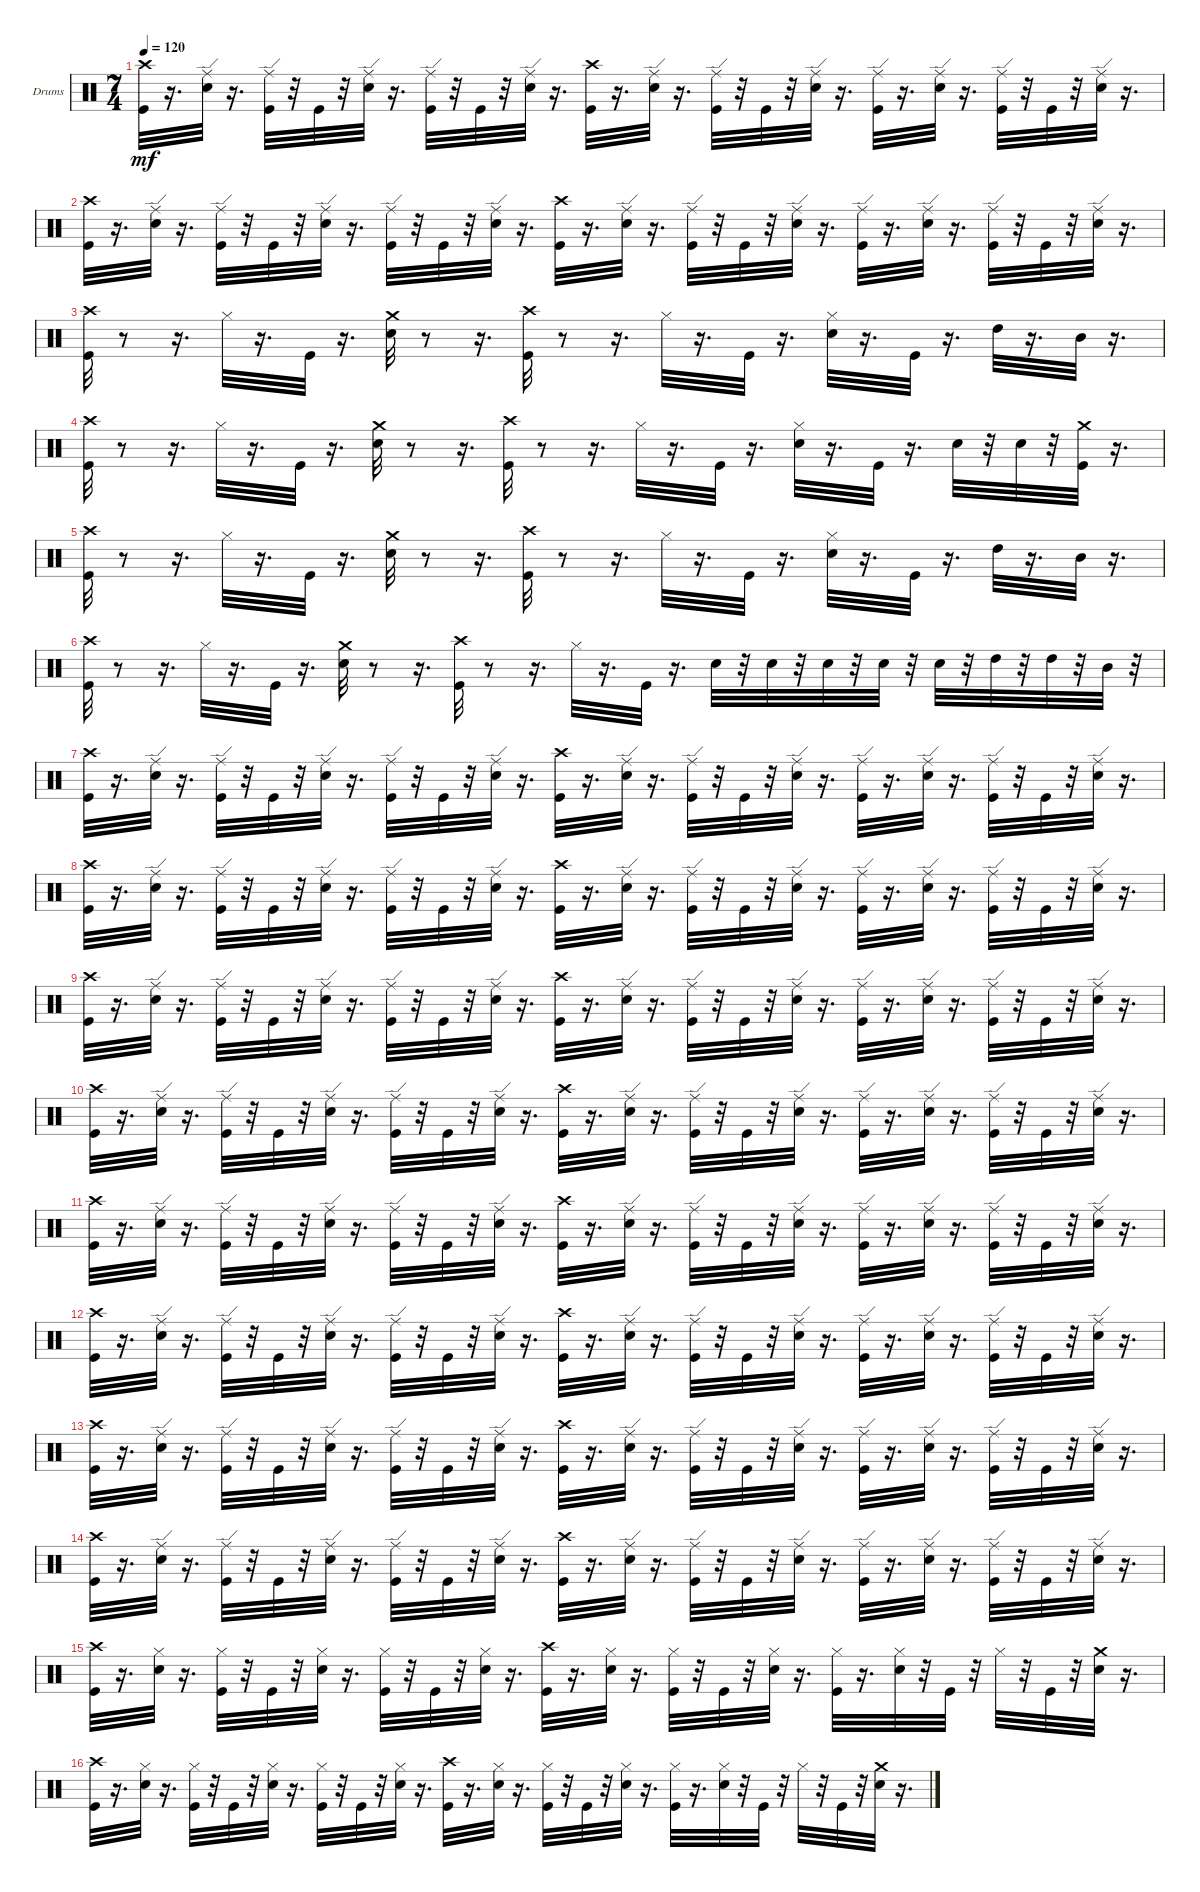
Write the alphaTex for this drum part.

\bracketExtendMode groupsimilarinstruments
\firstSystemTrackNameOrientation horizontal
\otherSystemsTrackNameOrientation horizontal
\track ("" "Drums") {instrument percussion}
\staff {score}
\articulation defaults
\ts (7 4)
\tempo 120
\clef neutral
\ks c
("Crash high (hit)" "Kick (hit)").32{dy mf} r.16{d} ("Snare (hit) 2" "Ride (edge)").32 r.16{d} ("Kick (hit)" "Ride (edge)").32 r.32 "Kick (hit)".32 r.32 ("Snare (hit) 2" "Ride (edge)").32 r.16{d} ("Kick (hit)" "Ride (edge)").32 r.32 "Kick (hit)".32 r.32 ("Ride (edge)" "Snare (hit) 2").32 r.16{d} ("Crash high (hit)" "Kick (hit)").32 r.16{d} ("Snare (hit) 2" "Ride (edge)").32 r.16{d} ("Kick (hit)" "Ride (edge)").32 r.32 "Kick (hit)".32 r.32 ("Snare (hit) 2" "Ride (edge)").32 r.16{d} ("Kick (hit)" "Ride (edge)").32 r.16{d} ("Snare (hit) 2" "Ride (edge)").32 r.16{d} ("Kick (hit)" "Ride (edge)").32 r.32 "Kick (hit)".32 r.32 ("Snare (hit) 2" "Ride (edge)").32 r.16{d} |
("Crash high (hit)" "Kick (hit)").32 r.16{d} ("Snare (hit) 2" "Ride (edge)").32 r.16{d} ("Kick (hit)" "Ride (edge)").32 r.32 "Kick (hit)".32 r.32 ("Snare (hit) 2" "Ride (edge)").32 r.16{d} ("Kick (hit)" "Ride (edge)").32 r.32 "Kick (hit)".32 r.32 ("Ride (edge)" "Snare (hit) 2").32 r.16{d} ("Crash high (hit)" "Kick (hit)").32 r.16{d} ("Snare (hit) 2" "Ride (edge)").32 r.16{d} ("Kick (hit)" "Ride (edge)").32 r.32 "Kick (hit)".32 r.32 ("Snare (hit) 2" "Ride (edge)").32 r.16{d} ("Kick (hit)" "Ride (edge)").32 r.16{d} ("Snare (hit) 2" "Ride (edge)").32 r.16{d} ("Kick (hit)" "Ride (edge)").32 r.32 "Kick (hit)".32 r.32 ("Snare (hit) 2" "Ride (edge)").32 r.16{d} |
("Crash high (hit)" "Kick (hit)").32 r.8 r.16{d} "Hi-Hat (closed)".32 r.16{d} "Kick (hit)".32 r.16{d} ("Snare (hit) 2" "Crash medium (hit)").32 r.8 r.16{d} ("Crash high (hit)" "Kick (hit)").32 r.8 r.16{d} "Hi-Hat (closed)".32 r.16{d} "Kick (hit)".32 r.16{d} ("Snare (hit) 2" "Hi-Hat (closed)").32 r.16{d} "Kick (hit)".32 r.16{d} "High Tom (hit)".32 r.16{d} "Mid Tom (hit)".32 r.16{d} |
("Crash high (hit)" "Kick (hit)").32 r.8 r.16{d} "Hi-Hat (closed)".32 r.16{d} "Kick (hit)".32 r.16{d} ("Snare (hit) 2" "Crash medium (hit)").32 r.8 r.16{d} ("Crash high (hit)" "Kick (hit)").32 r.8 r.16{d} "Hi-Hat (closed)".32 r.16{d} "Kick (hit)".32 r.16{d} ("Snare (hit) 2" "Hi-Hat (closed)").32 r.16{d} "Kick (hit)".32 r.16{d} "Snare (hit) 2".32 r.32 "Snare (hit) 2".32 r.32 ("Kick (hit)" "Crash medium (hit)").32 r.16{d} |
("Crash high (hit)" "Kick (hit)").32 r.8 r.16{d} "Hi-Hat (closed)".32 r.16{d} "Kick (hit)".32 r.16{d} ("Snare (hit) 2" "Crash medium (hit)").32 r.8 r.16{d} ("Crash high (hit)" "Kick (hit)").32 r.8 r.16{d} "Hi-Hat (closed)".32 r.16{d} "Kick (hit)".32 r.16{d} ("Snare (hit) 2" "Hi-Hat (closed)").32 r.16{d} "Kick (hit)".32 r.16{d} "High Tom (hit)".32 r.16{d} "Mid Tom (hit)".32 r.16{d} |
("Crash high (hit)" "Kick (hit)").32 r.8 r.16{d} "Hi-Hat (closed)".32 r.16{d} "Kick (hit)".32 r.16{d} ("Snare (hit) 2" "Crash medium (hit)").32 r.8 r.16{d} ("Crash high (hit)" "Kick (hit)").32 r.8 r.16{d} "Hi-Hat (closed)".32 r.16{d} "Kick (hit)".32 r.16{d} "Snare (hit) 2".32 r.32 "Snare (hit) 2".32 r.32 "Snare (hit) 2".32 r.32 "Snare (hit) 2".32 r.32 "Snare (hit) 2".32 r.32 "High Tom (hit)".32 r.32 "High Tom (hit)".32 r.32 "Mid Tom (hit)".32 r.32 |
("Crash high (hit)" "Kick (hit)").32 r.16{d} ("Snare (hit) 2" "Ride (edge)").32 r.16{d} ("Kick (hit)" "Ride (edge)").32 r.32 "Kick (hit)".32 r.32 ("Snare (hit) 2" "Ride (edge)").32 r.16{d} ("Kick (hit)" "Ride (edge)").32 r.32 "Kick (hit)".32 r.32 ("Ride (edge)" "Snare (hit) 2").32 r.16{d} ("Crash high (hit)" "Kick (hit)").32 r.16{d} ("Snare (hit) 2" "Ride (edge)").32 r.16{d} ("Kick (hit)" "Ride (edge)").32 r.32 "Kick (hit)".32 r.32 ("Snare (hit) 2" "Ride (edge)").32 r.16{d} ("Kick (hit)" "Ride (edge)").32 r.16{d} ("Snare (hit) 2" "Ride (edge)").32 r.16{d} ("Kick (hit)" "Ride (edge)").32 r.32 "Kick (hit)".32 r.32 ("Snare (hit) 2" "Ride (edge)").32 r.16{d} |
("Crash high (hit)" "Kick (hit)").32 r.16{d} ("Snare (hit) 2" "Ride (edge)").32 r.16{d} ("Kick (hit)" "Ride (edge)").32 r.32 "Kick (hit)".32 r.32 ("Snare (hit) 2" "Ride (edge)").32 r.16{d} ("Kick (hit)" "Ride (edge)").32 r.32 "Kick (hit)".32 r.32 ("Ride (edge)" "Snare (hit) 2").32 r.16{d} ("Crash high (hit)" "Kick (hit)").32 r.16{d} ("Snare (hit) 2" "Ride (edge)").32 r.16{d} ("Kick (hit)" "Ride (edge)").32 r.32 "Kick (hit)".32 r.32 ("Snare (hit) 2" "Ride (edge)").32 r.16{d} ("Kick (hit)" "Ride (edge)").32 r.16{d} ("Snare (hit) 2" "Ride (edge)").32 r.16{d} ("Kick (hit)" "Ride (edge)").32 r.32 "Kick (hit)".32 r.32 ("Snare (hit) 2" "Ride (edge)").32 r.16{d} |
("Crash high (hit)" "Kick (hit)").32 r.16{d} ("Snare (hit) 2" "Ride (edge)").32 r.16{d} ("Kick (hit)" "Ride (edge)").32 r.32 "Kick (hit)".32 r.32 ("Snare (hit) 2" "Ride (edge)").32 r.16{d} ("Kick (hit)" "Ride (edge)").32 r.32 "Kick (hit)".32 r.32 ("Ride (edge)" "Snare (hit) 2").32 r.16{d} ("Crash high (hit)" "Kick (hit)").32 r.16{d} ("Snare (hit) 2" "Ride (edge)").32 r.16{d} ("Kick (hit)" "Ride (edge)").32 r.32 "Kick (hit)".32 r.32 ("Snare (hit) 2" "Ride (edge)").32 r.16{d} ("Kick (hit)" "Ride (edge)").32 r.16{d} ("Snare (hit) 2" "Ride (edge)").32 r.16{d} ("Kick (hit)" "Ride (edge)").32 r.32 "Kick (hit)".32 r.32 ("Snare (hit) 2" "Ride (edge)").32 r.16{d} |
("Crash high (hit)" "Kick (hit)").32 r.16{d} ("Snare (hit) 2" "Ride (edge)").32 r.16{d} ("Kick (hit)" "Ride (edge)").32 r.32 "Kick (hit)".32 r.32 ("Snare (hit) 2" "Ride (edge)").32 r.16{d} ("Kick (hit)" "Ride (edge)").32 r.32 "Kick (hit)".32 r.32 ("Ride (edge)" "Snare (hit) 2").32 r.16{d} ("Crash high (hit)" "Kick (hit)").32 r.16{d} ("Snare (hit) 2" "Ride (edge)").32 r.16{d} ("Kick (hit)" "Ride (edge)").32 r.32 "Kick (hit)".32 r.32 ("Snare (hit) 2" "Ride (edge)").32 r.16{d} ("Kick (hit)" "Ride (edge)").32 r.16{d} ("Snare (hit) 2" "Ride (edge)").32 r.16{d} ("Kick (hit)" "Ride (edge)").32 r.32 "Kick (hit)".32 r.32 ("Snare (hit) 2" "Ride (edge)").32 r.16{d} |
("Crash high (hit)" "Kick (hit)").32 r.16{d} ("Snare (hit) 2" "Ride (edge)").32 r.16{d} ("Kick (hit)" "Ride (edge)").32 r.32 "Kick (hit)".32 r.32 ("Snare (hit) 2" "Ride (edge)").32 r.16{d} ("Kick (hit)" "Ride (edge)").32 r.32 "Kick (hit)".32 r.32 ("Ride (edge)" "Snare (hit) 2").32 r.16{d} ("Crash high (hit)" "Kick (hit)").32 r.16{d} ("Snare (hit) 2" "Ride (edge)").32 r.16{d} ("Kick (hit)" "Ride (edge)").32 r.32 "Kick (hit)".32 r.32 ("Snare (hit) 2" "Ride (edge)").32 r.16{d} ("Kick (hit)" "Ride (edge)").32 r.16{d} ("Snare (hit) 2" "Ride (edge)").32 r.16{d} ("Kick (hit)" "Ride (edge)").32 r.32 "Kick (hit)".32 r.32 ("Snare (hit) 2" "Ride (edge)").32 r.16{d} |
("Crash high (hit)" "Kick (hit)").32 r.16{d} ("Snare (hit) 2" "Ride (edge)").32 r.16{d} ("Kick (hit)" "Ride (edge)").32 r.32 "Kick (hit)".32 r.32 ("Snare (hit) 2" "Ride (edge)").32 r.16{d} ("Kick (hit)" "Ride (edge)").32 r.32 "Kick (hit)".32 r.32 ("Ride (edge)" "Snare (hit) 2").32 r.16{d} ("Crash high (hit)" "Kick (hit)").32 r.16{d} ("Snare (hit) 2" "Ride (edge)").32 r.16{d} ("Kick (hit)" "Ride (edge)").32 r.32 "Kick (hit)".32 r.32 ("Snare (hit) 2" "Ride (edge)").32 r.16{d} ("Kick (hit)" "Ride (edge)").32 r.16{d} ("Snare (hit) 2" "Ride (edge)").32 r.16{d} ("Kick (hit)" "Ride (edge)").32 r.32 "Kick (hit)".32 r.32 ("Snare (hit) 2" "Ride (edge)").32 r.16{d} |
("Crash high (hit)" "Kick (hit)").32 r.16{d} ("Snare (hit) 2" "Ride (edge)").32 r.16{d} ("Kick (hit)" "Ride (edge)").32 r.32 "Kick (hit)".32 r.32 ("Snare (hit) 2" "Ride (edge)").32 r.16{d} ("Kick (hit)" "Ride (edge)").32 r.32 "Kick (hit)".32 r.32 ("Ride (edge)" "Snare (hit) 2").32 r.16{d} ("Crash high (hit)" "Kick (hit)").32 r.16{d} ("Snare (hit) 2" "Ride (edge)").32 r.16{d} ("Kick (hit)" "Ride (edge)").32 r.32 "Kick (hit)".32 r.32 ("Snare (hit) 2" "Ride (edge)").32 r.16{d} ("Kick (hit)" "Ride (edge)").32 r.16{d} ("Snare (hit) 2" "Ride (edge)").32 r.16{d} ("Kick (hit)" "Ride (edge)").32 r.32 "Kick (hit)".32 r.32 ("Snare (hit) 2" "Ride (edge)").32 r.16{d} |
("Crash high (hit)" "Kick (hit)").32 r.16{d} ("Snare (hit) 2" "Ride (edge)").32 r.16{d} ("Kick (hit)" "Ride (edge)").32 r.32 "Kick (hit)".32 r.32 ("Snare (hit) 2" "Ride (edge)").32 r.16{d} ("Kick (hit)" "Ride (edge)").32 r.32 "Kick (hit)".32 r.32 ("Ride (edge)" "Snare (hit) 2").32 r.16{d} ("Crash high (hit)" "Kick (hit)").32 r.16{d} ("Snare (hit) 2" "Ride (edge)").32 r.16{d} ("Kick (hit)" "Ride (edge)").32 r.32 "Kick (hit)".32 r.32 ("Snare (hit) 2" "Ride (edge)").32 r.16{d} ("Kick (hit)" "Ride (edge)").32 r.16{d} ("Snare (hit) 2" "Ride (edge)").32 r.16{d} ("Kick (hit)" "Ride (edge)").32 r.32 "Kick (hit)".32 r.32 ("Snare (hit) 2" "Ride (edge)").32 r.16{d} |
("Crash high (hit)" "Kick (hit)").32 r.16{d} ("Snare (hit) 2" "Hi-Hat (closed)").32 r.16{d} ("Kick (hit)" "Hi-Hat (closed)").32 r.32 "Kick (hit)".32 r.32 ("Snare (hit) 2" "Hi-Hat (closed)").32 r.16{d} ("Kick (hit)" "Hi-Hat (closed)").32 r.32 "Kick (hit)".32 r.32 ("Snare (hit) 2" "Hi-Hat (closed)").32 r.16{d} ("Crash high (hit)" "Kick (hit)").32 r.16{d} ("Snare (hit) 2" "Hi-Hat (closed)").32 r.16{d} ("Kick (hit)" "Hi-Hat (closed)").32 r.32 "Kick (hit)".32 r.32 ("Snare (hit) 2" "Hi-Hat (closed)").32 r.16{d} ("Kick (hit)" "Hi-Hat (closed)").32 r.16{d} ("Snare (hit) 2" "Hi-Hat (closed)").32 r.32 "Kick (hit)".32 r.32 "Hi-Hat (closed)".32 r.32 "Kick (hit)".32 r.32 ("Crash medium (hit)" "Snare (hit) 2").32 r.16{d} |
("Crash high (hit)" "Kick (hit)").32 r.16{d} ("Snare (hit) 2" "Hi-Hat (closed)").32 r.16{d} ("Kick (hit)" "Hi-Hat (closed)").32 r.32 "Kick (hit)".32 r.32 ("Snare (hit) 2" "Hi-Hat (closed)").32 r.16{d} ("Kick (hit)" "Hi-Hat (closed)").32 r.32 "Kick (hit)".32 r.32 ("Snare (hit) 2" "Hi-Hat (closed)").32 r.16{d} ("Crash high (hit)" "Kick (hit)").32 r.16{d} ("Snare (hit) 2" "Hi-Hat (closed)").32 r.16{d} ("Kick (hit)" "Hi-Hat (closed)").32 r.32 "Kick (hit)".32 r.32 ("Snare (hit) 2" "Hi-Hat (closed)").32 r.16{d} ("Kick (hit)" "Hi-Hat (closed)").32 r.16{d} ("Snare (hit) 2" "Hi-Hat (closed)").32 r.32 "Kick (hit)".32 r.32 "Hi-Hat (closed)".32 r.32 "Kick (hit)".32 r.32 ("Crash medium (hit)" "Snare (hit) 2").32 r.16{d}
